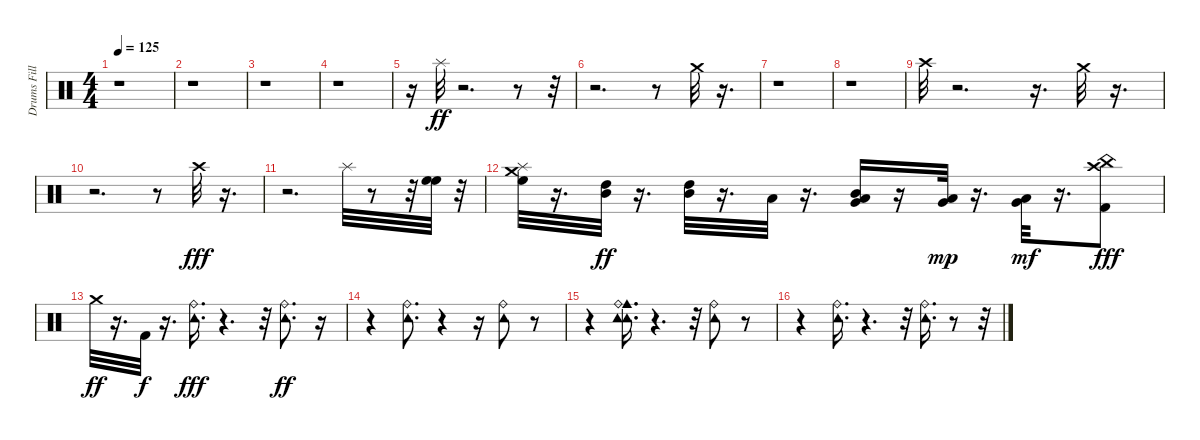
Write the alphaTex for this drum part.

\track ("Drums Fill" "Drums Fill") {instrument percussion}
\staff {score}
\articulation defaults
\ts (4 4)
\tempo 125
\clef neutral
\ks c
r.1{dy ff} |
r.1 |
r.1 |
r.1 |
r.16 "Splash (hit)".32 r.2{d} r.8 r.32 |
r.2{d} r.8 "Crash medium (hit)".32 r.16{d} |
r.1 |
r.1 |
"Crash high (hit)".32 r.2{d} r.16{d} "Crash medium (hit)".32 r.16{d} |
r.2{d} r.8 "Crash high (hit)".32{dy fff} r.16{d} |
r.2{d} "Splash (hit)".32 r.8 r.32 ("High Floor Tom (hit)" "High Floor Tom (hit)").32 r.32 |
("High Floor Tom (hit)" "Crash medium (hit)" "Splash (hit)").32 r.16{d} ("High Tom (hit)" "Mid Tom (hit)").32{dy ff} r.16{d} ("Mid Tom (hit)" "High Tom (hit)").32 r.16{d} "Low Tom (hit)".32 r.16{d} ("Very Low Tom (hit)" "Mid Tom (hit)" "Low Tom (hit)").16 r.16 ("Very Low Tom (hit)" "Low Tom (hit)").32{dy mp} r.16{d} ("Low Floor Tom (hit)" "Very Low Tom (hit)").32{dy mf} r.16{d} ("Kick (hit) 2" "China (hit)" "Crash high (hit)").8{dy fff} |
"Crash medium (hit)".32{dy ff} r.16{d} "Kick (hit) 2".32{dy f} r.16{d} ("Ride (bell)" "Tambourine (hit)").16{d dy fff} r.4{d} r.32 ("Tambourine (hit)" "Ride (bell)").8{d dy ff} r.16 |
r.4 ("Tambourine (hit)" "Ride (bell)").8{d} r.4 r.16 ("Tambourine (hit)" "Ride (bell)").8 r.8 |
r.4 ("Tambourine (hit)" "Cowbell medium (hit)" "Ride (bell)" "Tambourine (hit)").16{d} r.4{d} r.32 ("Tambourine (hit)" "Ride (bell)").8 r.8 |
r.4 ("Tambourine (hit)" "Ride (bell)").16{d} r.4{d} r.32 ("Tambourine (hit)" "Ride (bell)").16{d} r.8 r.32
